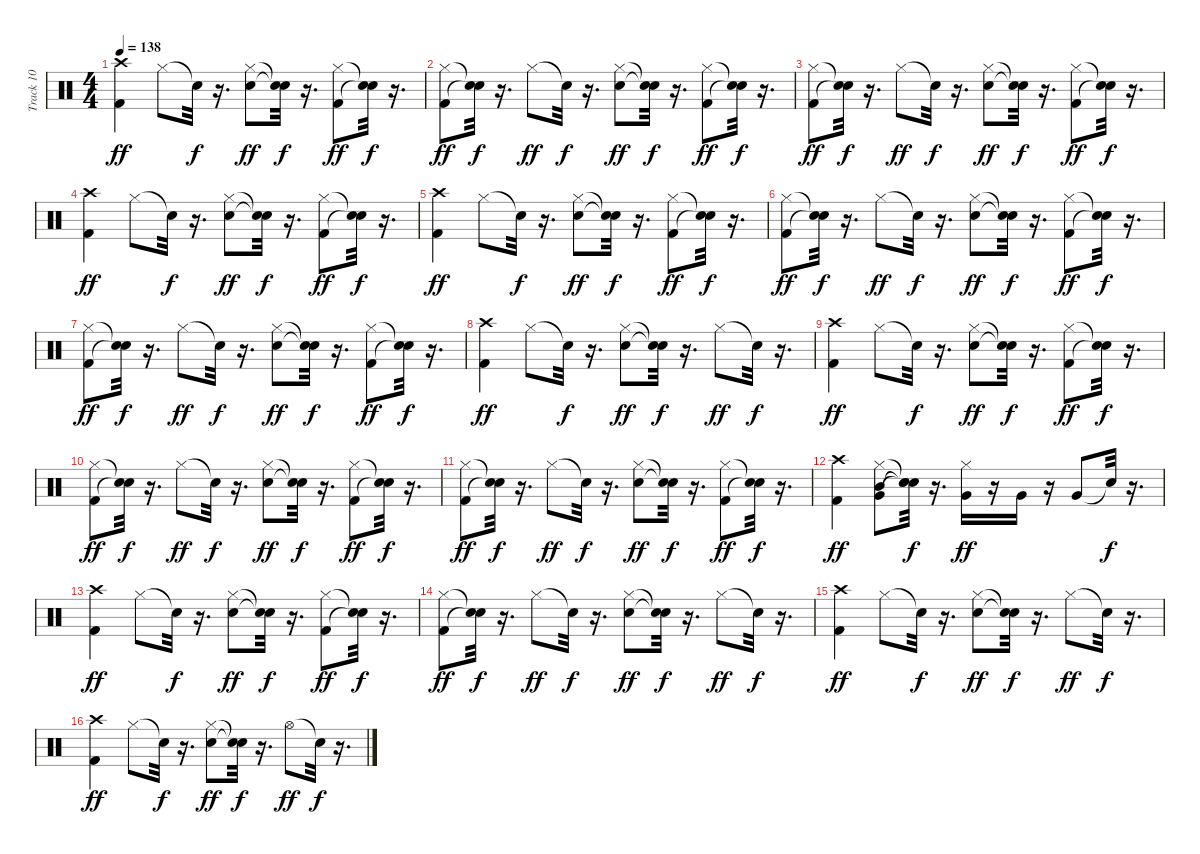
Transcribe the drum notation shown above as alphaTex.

\track ("Track 10" "Track 10") {instrument percussion}
\staff {score}
\articulation defaults
\ts (4 4)
\tempo 138
\clef neutral
\ks c
("Crash high (hit)" "Kick (hit) 2").4{dy ff} "Hi-Hat (closed)".8 "Snare (hit)"{t}.32{dy f} r.16{d} ("Snare (hit) 2" "Hi-Hat (closed)").8{dy ff} ("Snare (hit)"{t} "Snare (hit)"{t}).32{dy f} r.16{d} ("Hi-Hat (closed)" "Kick (hit) 2").8{dy ff} ("Snare (hit)"{t} "Snare (hit)"{t}).32{dy f} r.16{d} |
("Hi-Hat (closed)" "Kick (hit) 2").8{dy ff} ("Snare (hit)"{t} "Snare (hit)"{t}).32{dy f} r.16{d} "Hi-Hat (closed)".8{dy ff} "Snare (hit)"{t}.32{dy f} r.16{d} ("Snare (hit) 2" "Hi-Hat (closed)").8{dy ff} ("Snare (hit)"{t} "Snare (hit)"{t}).32{dy f} r.16{d} ("Hi-Hat (closed)" "Kick (hit) 2").8{dy ff} ("Snare (hit)"{t} "Snare (hit)"{t}).32{dy f} r.16{d} |
("Hi-Hat (closed)" "Kick (hit) 2").8{dy ff} ("Snare (hit)"{t} "Snare (hit)"{t}).32{dy f} r.16{d} "Hi-Hat (closed)".8{dy ff} "Snare (hit)"{t}.32{dy f} r.16{d} ("Snare (hit) 2" "Hi-Hat (closed)").8{dy ff} ("Snare (hit)"{t} "Snare (hit)"{t}).32{dy f} r.16{d} ("Hi-Hat (closed)" "Kick (hit) 2").8{dy ff} ("Snare (hit)"{t} "Snare (hit)"{t}).32{dy f} r.16{d} |
("Crash high (hit)" "Kick (hit) 2").4{dy ff} "Hi-Hat (closed)".8 "Snare (hit)"{t}.32{dy f} r.16{d} ("Snare (hit) 2" "Hi-Hat (closed)").8{dy ff} ("Snare (hit)"{t} "Snare (hit)"{t}).32{dy f} r.16{d} ("Hi-Hat (closed)" "Kick (hit) 2").8{dy ff} ("Snare (hit)"{t} "Snare (hit)"{t}).32{dy f} r.16{d} |
("Crash high (hit)" "Kick (hit) 2").4{dy ff} "Hi-Hat (closed)".8 "Snare (hit)"{t}.32{dy f} r.16{d} ("Snare (hit) 2" "Hi-Hat (closed)").8{dy ff} ("Snare (hit)"{t} "Snare (hit)"{t}).32{dy f} r.16{d} ("Hi-Hat (closed)" "Kick (hit) 2").8{dy ff} ("Snare (hit)"{t} "Snare (hit)"{t}).32{dy f} r.16{d} |
("Hi-Hat (closed)" "Kick (hit) 2").8{dy ff} ("Snare (hit)"{t} "Snare (hit)"{t}).32{dy f} r.16{d} "Hi-Hat (closed)".8{dy ff} "Snare (hit)"{t}.32{dy f} r.16{d} ("Snare (hit) 2" "Hi-Hat (closed)").8{dy ff} ("Snare (hit)"{t} "Snare (hit)"{t}).32{dy f} r.16{d} ("Hi-Hat (closed)" "Kick (hit) 2").8{dy ff} ("Snare (hit)"{t} "Snare (hit)"{t}).32{dy f} r.16{d} |
("Hi-Hat (closed)" "Kick (hit) 2").8{dy ff} ("Snare (hit)"{t} "Snare (hit)"{t}).32{dy f} r.16{d} "Hi-Hat (closed)".8{dy ff} "Snare (hit)"{t}.32{dy f} r.16{d} ("Snare (hit) 2" "Hi-Hat (closed)").8{dy ff} ("Snare (hit)"{t} "Snare (hit)"{t}).32{dy f} r.16{d} ("Hi-Hat (closed)" "Kick (hit) 2").8{dy ff} ("Snare (hit)"{t} "Snare (hit)"{t}).32{dy f} r.16{d} |
("Crash high (hit)" "Kick (hit) 2").4{dy ff} "Hi-Hat (closed)".8 "Snare (hit)"{t}.32{dy f} r.16{d} ("Snare (hit) 2" "Hi-Hat (closed)").8{dy ff} ("Snare (hit)"{t} "Snare (hit)"{t}).32{dy f} r.16{d} "Hi-Hat (closed)".8{dy ff} "Snare (hit)"{t}.32{dy f} r.16{d} |
("Crash high (hit)" "Kick (hit) 2").4{dy ff} "Hi-Hat (closed)".8 "Snare (hit)"{t}.32{dy f} r.16{d} ("Snare (hit) 2" "Hi-Hat (closed)").8{dy ff} ("Snare (hit)"{t} "Snare (hit)"{t}).32{dy f} r.16{d} ("Hi-Hat (closed)" "Kick (hit) 2").8{dy ff} ("Snare (hit)"{t} "Snare (hit)"{t}).32{dy f} r.16{d} |
("Hi-Hat (closed)" "Kick (hit) 2").8{dy ff} ("Snare (hit)"{t} "Snare (hit)"{t}).32{dy f} r.16{d} "Hi-Hat (closed)".8{dy ff} "Snare (hit)"{t}.32{dy f} r.16{d} ("Snare (hit) 2" "Hi-Hat (closed)").8{dy ff} ("Snare (hit)"{t} "Snare (hit)"{t}).32{dy f} r.16{d} ("Hi-Hat (closed)" "Kick (hit) 2").8{dy ff} ("Snare (hit)"{t} "Snare (hit)"{t}).32{dy f} r.16{d} |
("Hi-Hat (closed)" "Kick (hit) 2").8{dy ff} ("Snare (hit)"{t} "Snare (hit)"{t}).32{dy f} r.16{d} "Hi-Hat (closed)".8{dy ff} "Snare (hit)"{t}.32{dy f} r.16{d} ("Snare (hit) 2" "Hi-Hat (closed)").8{dy ff} ("Snare (hit)"{t} "Snare (hit)"{t}).32{dy f} r.16{d} ("Hi-Hat (closed)" "Kick (hit) 2").8{dy ff} ("Snare (hit)"{t} "Snare (hit)"{t}).32{dy f} r.16{d} |
("Crash high (hit)" "Kick (hit) 2").4{dy ff} ("Very Low Tom (hit)" "Mid Tom (hit)" "Hi-Hat (closed)").8 ("Snare (hit)"{t} "Snare (hit)"{t} "Snare (hit)"{t}).32{dy f} r.16{d} ("Very Low Tom (hit)" "Hi-Hat (closed)").16{dy ff} r.16 "Very Low Tom (hit)".16 r.16 "Very Low Tom (hit)".8 "Snare (hit)"{t}.32{dy f} r.16{d} |
("Crash high (hit)" "Kick (hit) 2").4{dy ff} "Hi-Hat (closed)".8 "Snare (hit)"{t}.32{dy f} r.16{d} ("Snare (hit) 2" "Hi-Hat (closed)").8{dy ff} ("Snare (hit)"{t} "Snare (hit)"{t}).32{dy f} r.16{d} ("Hi-Hat (closed)" "Kick (hit) 2").8{dy ff} ("Snare (hit)"{t} "Snare (hit)"{t}).32{dy f} r.16{d} |
("Hi-Hat (closed)" "Kick (hit) 2").8{dy ff} ("Snare (hit)"{t} "Snare (hit)"{t}).32{dy f} r.16{d} "Hi-Hat (closed)".8{dy ff} "Snare (hit)"{t}.32{dy f} r.16{d} ("Snare (hit) 2" "Hi-Hat (closed)").8{dy ff} ("Snare (hit)"{t} "Snare (hit)"{t}).32{dy f} r.16{d} "Hi-Hat (closed)".8{dy ff} "Snare (hit)"{t}.32{dy f} r.16{d} |
("Crash high (hit)" "Kick (hit) 2").4{dy ff} "Hi-Hat (closed)".8 "Snare (hit)"{t}.32{dy f} r.16{d} ("Snare (hit) 2" "Hi-Hat (closed)").8{dy ff} ("Snare (hit)"{t} "Snare (hit)"{t}).32{dy f} r.16{d} "Hi-Hat (closed)".8{dy ff} "Snare (hit)"{t}.32{dy f} r.16{d} |
("Crash high (hit)" "Kick (hit) 2").4{dy ff} "Hi-Hat (closed)".8 "Snare (hit)"{t}.32{dy f} r.16{d} ("Snare (hit) 2" "Hi-Hat (closed)").8{dy ff} ("Snare (hit)"{t} "Snare (hit)"{t}).32{dy f} r.16{d} "Hi-Hat (open)".8{dy ff} "Snare (hit)"{t}.32{dy f} r.16{d}
